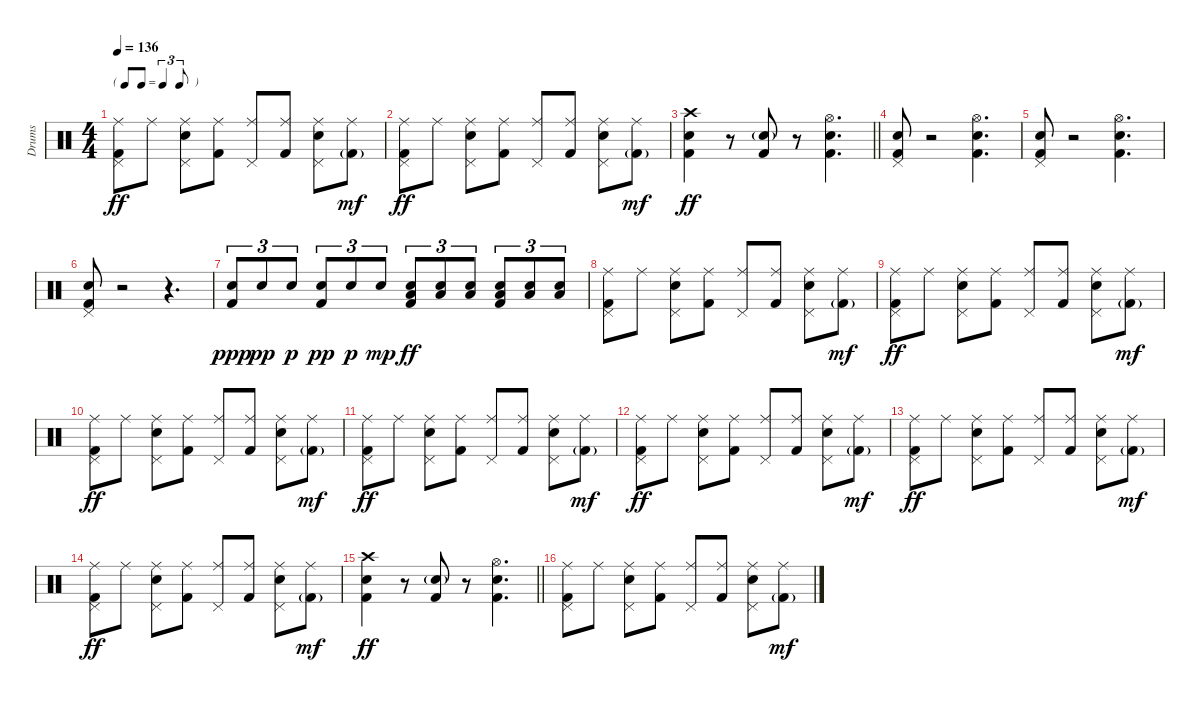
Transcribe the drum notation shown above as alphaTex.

\track ("Drums" "Drums") {instrument percussion}
\staff {score}
\articulation defaults
\ts (4 4)
\tf triplet8th
\tempo 136
\clef neutral
\ks c
("Ride (middle)" "Pedal Hi-Hat (hit)" "Kick (hit) 2").8{dy ff} "Ride (middle)".8 ("Ride (middle)" "Pedal Hi-Hat (hit)" "Snare (hit) 2").8 ("Ride (middle)" "Kick (hit) 2").8 ("Ride (middle)" "Pedal Hi-Hat (hit)").8 ("Ride (middle)" "Kick (hit) 2").8 ("Ride (middle)" "Pedal Hi-Hat (hit)" "Snare (hit) 2").8 ("Ride (middle)" "Kick (hit) 2"{g}).8{dy mf} |
("Ride (middle)" "Pedal Hi-Hat (hit)" "Kick (hit) 2").8{dy ff} "Ride (middle)".8 ("Ride (middle)" "Pedal Hi-Hat (hit)" "Snare (hit) 2").8 ("Ride (middle)" "Kick (hit) 2").8 ("Ride (middle)" "Pedal Hi-Hat (hit)").8 ("Ride (middle)" "Kick (hit) 2").8 ("Ride (middle)" "Pedal Hi-Hat (hit)" "Snare (hit) 2").8 ("Ride (middle)" "Kick (hit) 2"{g}).8{dy mf} |
\barLineRight lightlight
("Crash high (hit)" "Snare (hit) 2" "Kick (hit) 2").4{dy ff} r.8 ("Snare (hit) 2"{g} "Kick (hit) 2").8 r.8 ("Hi-Hat (open)" "Snare (hit) 2" "Kick (hit) 2").4{d} |
("Pedal Hi-Hat (hit)" "Snare (hit) 2" "Kick (hit) 2").8 r.2 ("Hi-Hat (open)" "Snare (hit) 2" "Kick (hit) 2").4{d} |
("Pedal Hi-Hat (hit)" "Snare (hit) 2" "Kick (hit) 2").8 r.2 ("Hi-Hat (open)" "Snare (hit) 2" "Kick (hit) 2").4{d} |
("Pedal Hi-Hat (hit)" "Snare (hit) 2" "Kick (hit) 2").8 r.2 r.4{d} |
("Snare (hit) 2" "Kick (hit) 2").8{tu (3 2) dy ppp} "Snare (hit) 2".8{tu (3 2) dy pp} "Snare (hit) 2".8{tu (3 2) dy p} ("Snare (hit) 2" "Kick (hit) 2").8{tu (3 2) dy pp} "Snare (hit) 2".8{tu (3 2) dy p} "Snare (hit) 2".8{tu (3 2) dy mp} ("Snare (hit) 2" "Low Floor Tom (hit)" "Kick (hit) 2").8{tu (3 2) dy ff} ("Snare (hit) 2" "Low Floor Tom (hit)").8{tu (3 2)} ("Snare (hit) 2" "Low Floor Tom (hit)").8{tu (3 2)} ("Snare (hit) 2" "Low Floor Tom (hit)" "Kick (hit) 2").8{tu (3 2)} ("Snare (hit) 2" "Low Floor Tom (hit)").8{tu (3 2)} ("Snare (hit) 2" "Low Floor Tom (hit)").8{tu (3 2)} |
("Ride (middle)" "Pedal Hi-Hat (hit)" "Kick (hit) 2").8 "Ride (middle)".8 ("Ride (middle)" "Pedal Hi-Hat (hit)" "Snare (hit) 2").8 ("Ride (middle)" "Kick (hit) 2").8 ("Ride (middle)" "Pedal Hi-Hat (hit)").8 ("Ride (middle)" "Kick (hit) 2").8 ("Ride (middle)" "Pedal Hi-Hat (hit)" "Snare (hit) 2").8 ("Ride (middle)" "Kick (hit) 2"{g}).8{dy mf} |
("Ride (middle)" "Pedal Hi-Hat (hit)" "Kick (hit) 2").8{dy ff} "Ride (middle)".8 ("Ride (middle)" "Pedal Hi-Hat (hit)" "Snare (hit) 2").8 ("Ride (middle)" "Kick (hit) 2").8 ("Ride (middle)" "Pedal Hi-Hat (hit)").8 ("Ride (middle)" "Kick (hit) 2").8 ("Ride (middle)" "Pedal Hi-Hat (hit)" "Snare (hit) 2").8 ("Ride (middle)" "Kick (hit) 2"{g}).8{dy mf} |
("Ride (middle)" "Pedal Hi-Hat (hit)" "Kick (hit) 2").8{dy ff} "Ride (middle)".8 ("Ride (middle)" "Pedal Hi-Hat (hit)" "Snare (hit) 2").8 ("Ride (middle)" "Kick (hit) 2").8 ("Ride (middle)" "Pedal Hi-Hat (hit)").8 ("Ride (middle)" "Kick (hit) 2").8 ("Ride (middle)" "Pedal Hi-Hat (hit)" "Snare (hit) 2").8 ("Ride (middle)" "Kick (hit) 2"{g}).8{dy mf} |
("Ride (middle)" "Pedal Hi-Hat (hit)" "Kick (hit) 2").8{dy ff} "Ride (middle)".8 ("Ride (middle)" "Pedal Hi-Hat (hit)" "Snare (hit) 2").8 ("Ride (middle)" "Kick (hit) 2").8 ("Ride (middle)" "Pedal Hi-Hat (hit)").8 ("Ride (middle)" "Kick (hit) 2").8 ("Ride (middle)" "Pedal Hi-Hat (hit)" "Snare (hit) 2").8 ("Ride (middle)" "Kick (hit) 2"{g}).8{dy mf} |
("Ride (middle)" "Pedal Hi-Hat (hit)" "Kick (hit) 2").8{dy ff} "Ride (middle)".8 ("Ride (middle)" "Pedal Hi-Hat (hit)" "Snare (hit) 2").8 ("Ride (middle)" "Kick (hit) 2").8 ("Ride (middle)" "Pedal Hi-Hat (hit)").8 ("Ride (middle)" "Kick (hit) 2").8 ("Ride (middle)" "Pedal Hi-Hat (hit)" "Snare (hit) 2").8 ("Ride (middle)" "Kick (hit) 2"{g}).8{dy mf} |
("Ride (middle)" "Pedal Hi-Hat (hit)" "Kick (hit) 2").8{dy ff} "Ride (middle)".8 ("Ride (middle)" "Pedal Hi-Hat (hit)" "Snare (hit) 2").8 ("Ride (middle)" "Kick (hit) 2").8 ("Ride (middle)" "Pedal Hi-Hat (hit)").8 ("Ride (middle)" "Kick (hit) 2").8 ("Ride (middle)" "Pedal Hi-Hat (hit)" "Snare (hit) 2").8 ("Ride (middle)" "Kick (hit) 2"{g}).8{dy mf} |
("Ride (middle)" "Pedal Hi-Hat (hit)" "Kick (hit) 2").8{dy ff} "Ride (middle)".8 ("Ride (middle)" "Pedal Hi-Hat (hit)" "Snare (hit) 2").8 ("Ride (middle)" "Kick (hit) 2").8 ("Ride (middle)" "Pedal Hi-Hat (hit)").8 ("Ride (middle)" "Kick (hit) 2").8 ("Ride (middle)" "Pedal Hi-Hat (hit)" "Snare (hit) 2").8 ("Ride (middle)" "Kick (hit) 2"{g}).8{dy mf} |
\barLineRight lightlight
("Crash high (hit)" "Snare (hit) 2" "Kick (hit) 2").4{dy ff} r.8 ("Snare (hit) 2"{g} "Kick (hit) 2").8 r.8 ("Hi-Hat (open)" "Snare (hit) 2" "Kick (hit) 2").4{d} |
("Ride (middle)" "Pedal Hi-Hat (hit)" "Kick (hit) 2").8 "Ride (middle)".8 ("Ride (middle)" "Pedal Hi-Hat (hit)" "Snare (hit) 2").8 ("Ride (middle)" "Kick (hit) 2").8 ("Ride (middle)" "Pedal Hi-Hat (hit)").8 ("Ride (middle)" "Kick (hit) 2").8 ("Ride (middle)" "Pedal Hi-Hat (hit)" "Snare (hit) 2").8 ("Ride (middle)" "Kick (hit) 2"{g}).8{dy mf}
